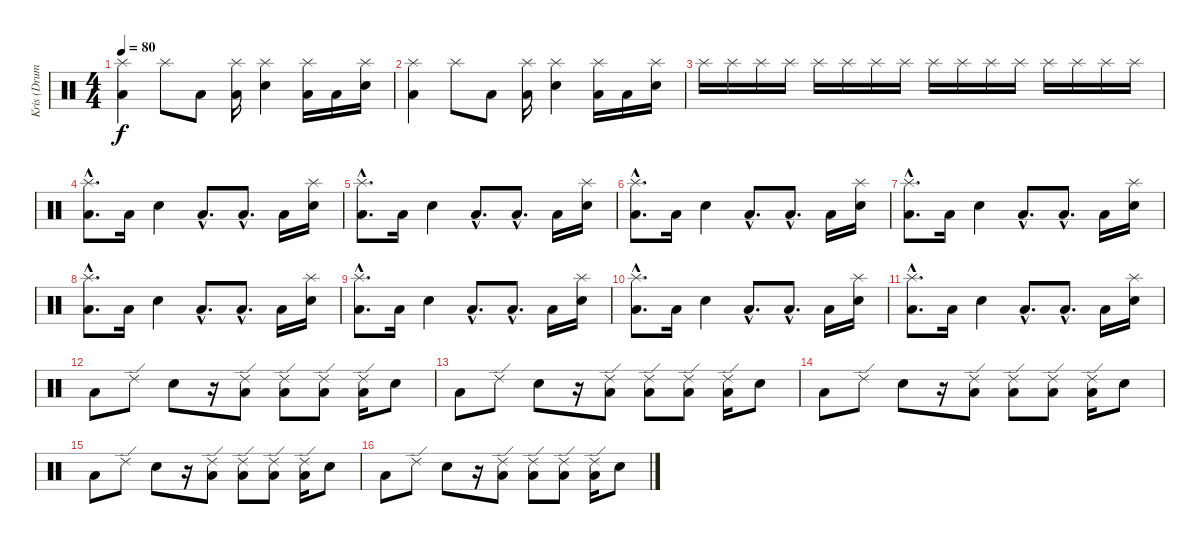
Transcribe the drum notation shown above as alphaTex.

\track ("Kris (Drums)" "Kris (Drum") {instrument percussion}
\staff {score}
\articulation defaults
\ts (4 4)
\tempo 80
\clef neutral
\ks c
("Splash (hit)" "Low Tom (hit)").4{dy f} "Splash (hit)".8 "Low Tom (hit)".8 ("Splash (hit)" "Low Tom (hit)").16 ("Splash (hit)" "Metronome (bell)").4 ("Splash (hit)" "Low Tom (hit)").16 "Low Tom (hit)".16 ("Splash (hit)" "Metronome (bell)").16 |
("Splash (hit)" "Low Tom (hit)").4 "Splash (hit)".8 "Low Tom (hit)".8 ("Splash (hit)" "Low Tom (hit)").16 ("Splash (hit)" "Metronome (bell)").4 ("Splash (hit)" "Low Tom (hit)").16 "Low Tom (hit)".16 ("Splash (hit)" "Metronome (bell)").16 |
"Splash (hit)".16 "Splash (hit)".16 "Splash (hit)".16 "Splash (hit)".16 "Splash (hit)".16 "Splash (hit)".16 "Splash (hit)".16 "Splash (hit)".16 "Splash (hit)".16 "Splash (hit)".16 "Splash (hit)".16 "Splash (hit)".16 "Splash (hit)".16 "Splash (hit)".16 "Splash (hit)".16 "Splash (hit)".16 |
("Splash (hit)"{hac} "Low Tom (hit)"{hac}).8{d} "Low Tom (hit)".16 "Metronome (bell)".4 "Low Tom (hit)"{hac}.8{d} "Low Tom (hit)"{hac}.8{d} "Low Tom (hit)".16 ("Splash (hit)" "Metronome (bell)").16 |
("Splash (hit)"{hac} "Low Tom (hit)"{hac}).8{d} "Low Tom (hit)".16 "Metronome (bell)".4 "Low Tom (hit)"{hac}.8{d} "Low Tom (hit)"{hac}.8{d} "Low Tom (hit)".16 ("Splash (hit)" "Metronome (bell)").16 |
("Splash (hit)"{hac} "Low Tom (hit)"{hac}).8{d} "Low Tom (hit)".16 "Metronome (bell)".4 "Low Tom (hit)"{hac}.8{d} "Low Tom (hit)"{hac}.8{d} "Low Tom (hit)".16 ("Splash (hit)" "Metronome (bell)").16 |
("Splash (hit)"{hac} "Low Tom (hit)"{hac}).8{d} "Low Tom (hit)".16 "Metronome (bell)".4 "Low Tom (hit)"{hac}.8{d} "Low Tom (hit)"{hac}.8{d} "Low Tom (hit)".16 ("Splash (hit)" "Metronome (bell)").16 |
("Splash (hit)"{hac} "Low Tom (hit)"{hac}).8{d} "Low Tom (hit)".16 "Metronome (bell)".4 "Low Tom (hit)"{hac}.8{d} "Low Tom (hit)"{hac}.8{d} "Low Tom (hit)".16 ("Splash (hit)" "Metronome (bell)").16 |
("Splash (hit)"{hac} "Low Tom (hit)"{hac}).8{d} "Low Tom (hit)".16 "Metronome (bell)".4 "Low Tom (hit)"{hac}.8{d} "Low Tom (hit)"{hac}.8{d} "Low Tom (hit)".16 ("Splash (hit)" "Metronome (bell)").16 |
("Splash (hit)"{hac} "Low Tom (hit)"{hac}).8{d} "Low Tom (hit)".16 "Metronome (bell)".4 "Low Tom (hit)"{hac}.8{d} "Low Tom (hit)"{hac}.8{d} "Low Tom (hit)".16 ("Splash (hit)" "Metronome (bell)").16 |
("Splash (hit)"{hac} "Low Tom (hit)"{hac}).8{d} "Low Tom (hit)".16 "Metronome (bell)".4 "Low Tom (hit)"{hac}.8{d} "Low Tom (hit)"{hac}.8{d} "Low Tom (hit)".16 ("Splash (hit)" "Metronome (bell)").16 |
"Low Tom (hit)".8 "Ride (edge) 2".8 "Metronome (bell)".8 r.16 ("Ride (edge) 2" "Low Tom (hit)").8 ("Ride (edge) 2" "Low Tom (hit)").8 ("Ride (edge) 2" "Low Tom (hit)").8 ("Ride (edge) 2" "Low Tom (hit)").16 "Metronome (bell)".8 |
"Low Tom (hit)".8 "Ride (edge) 2".8 "Metronome (bell)".8 r.16 ("Ride (edge) 2" "Low Tom (hit)").8 ("Ride (edge) 2" "Low Tom (hit)").8 ("Ride (edge) 2" "Low Tom (hit)").8 ("Ride (edge) 2" "Low Tom (hit)").16 "Metronome (bell)".8 |
"Low Tom (hit)".8 "Ride (edge) 2".8 "Metronome (bell)".8 r.16 ("Ride (edge) 2" "Low Tom (hit)").8 ("Ride (edge) 2" "Low Tom (hit)").8 ("Ride (edge) 2" "Low Tom (hit)").8 ("Ride (edge) 2" "Low Tom (hit)").16 "Metronome (bell)".8 |
"Low Tom (hit)".8 "Ride (edge) 2".8 "Metronome (bell)".8 r.16 ("Ride (edge) 2" "Low Tom (hit)").8 ("Ride (edge) 2" "Low Tom (hit)").8 ("Ride (edge) 2" "Low Tom (hit)").8 ("Ride (edge) 2" "Low Tom (hit)").16 "Metronome (bell)".8 |
"Low Tom (hit)".8 "Ride (edge) 2".8 "Metronome (bell)".8 r.16 ("Ride (edge) 2" "Low Tom (hit)").8 ("Ride (edge) 2" "Low Tom (hit)").8 ("Ride (edge) 2" "Low Tom (hit)").8 ("Ride (edge) 2" "Low Tom (hit)").16 "Metronome (bell)".8
